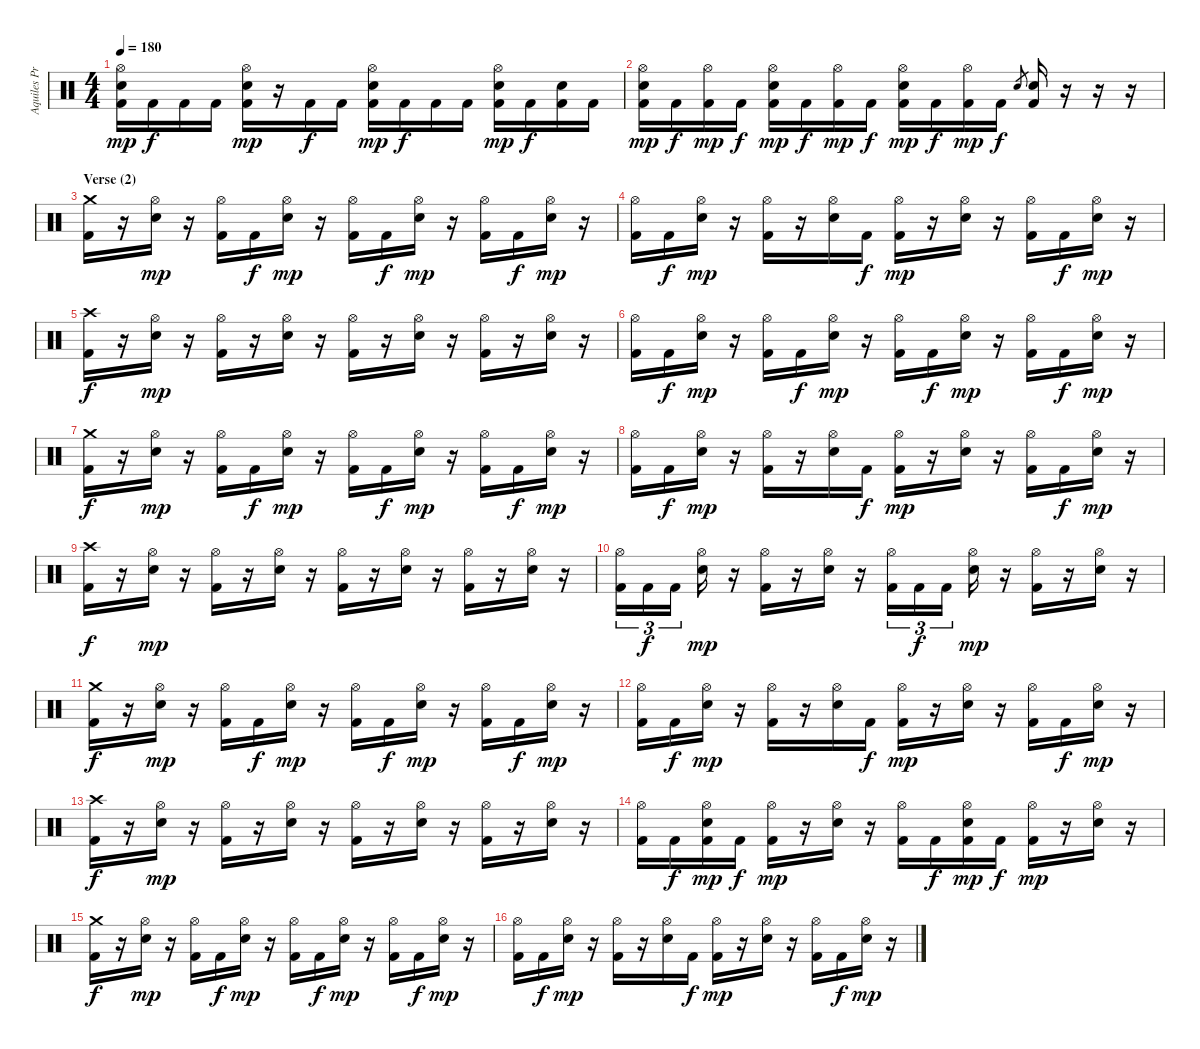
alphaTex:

\track ("Aquiles Priester" "Aquiles Pr") {instrument percussion}
\staff {score}
\articulation defaults
\ts (4 4)
\tempo 180
\clef neutral
\ks c
("Hi-Hat (open)" "Snare (hit) 2" "Kick (hit) 2").16{dy mp} "Kick (hit) 2".16{dy f} "Kick (hit) 2".16 "Kick (hit) 2".16 ("Hi-Hat (open)" "Snare (hit) 2" "Kick (hit) 2").16{dy mp} r.16 "Kick (hit) 2".16{dy f} "Kick (hit) 2".16 ("Hi-Hat (open)" "Snare (hit) 2" "Kick (hit) 2").16{dy mp} "Kick (hit) 2".16{dy f} "Kick (hit) 2".16 "Kick (hit) 2".16 ("Hi-Hat (open)" "Snare (hit) 2" "Kick (hit) 2").16{dy mp} "Kick (hit) 2".16{dy f} ("Snare (hit) 2" "Kick (hit) 2").16 "Kick (hit) 2".16 |
("Hi-Hat (open)" "Snare (hit) 2" "Kick (hit) 2").16{dy mp} "Kick (hit) 2".16{dy f} ("Hi-Hat (open)" "Kick (hit) 2").16{dy mp} "Kick (hit) 2".16{dy f} ("Hi-Hat (open)" "Snare (hit) 2" "Kick (hit) 2").16{dy mp} "Kick (hit) 2".16{dy f} ("Hi-Hat (open)" "Kick (hit) 2").16{dy mp} "Kick (hit) 2".16{dy f} ("Hi-Hat (open)" "Snare (hit) 2" "Kick (hit) 2").16{dy mp} "Kick (hit) 2".16{dy f} ("Hi-Hat (open)" "Kick (hit) 2").16{dy mp} "Kick (hit) 2".16{dy f} "Snare (hit) 2".8{gr} ("Snare (hit) 2" "Kick (hit) 2").16 r.16 r.16 r.16 |
\section ("" "Verse (2)")
("Crash medium (hit)" "Kick (hit) 2").16 r.16 ("Hi-Hat (open)" "Snare (hit) 2").16{dy mp} r.16 ("Hi-Hat (open)" "Kick (hit) 2").16 "Kick (hit) 2".16{dy f} ("Hi-Hat (open)" "Snare (hit) 2").16{dy mp} r.16 ("Hi-Hat (open)" "Kick (hit) 2").16 "Kick (hit) 2".16{dy f} ("Hi-Hat (open)" "Snare (hit) 2").16{dy mp} r.16 ("Hi-Hat (open)" "Kick (hit) 2").16 "Kick (hit) 2".16{dy f} ("Hi-Hat (open)" "Snare (hit) 2").16{dy mp} r.16 |
("Hi-Hat (open)" "Kick (hit) 2").16 "Kick (hit) 2".16{dy f} ("Hi-Hat (open)" "Snare (hit) 2").16{dy mp} r.16 ("Hi-Hat (open)" "Kick (hit) 2").16 r.16 ("Hi-Hat (open)" "Snare (hit) 2").16 "Kick (hit) 2".16{dy f} ("Hi-Hat (open)" "Kick (hit) 2").16{dy mp} r.16 ("Hi-Hat (open)" "Snare (hit) 2").16 r.16 ("Hi-Hat (open)" "Kick (hit) 2").16 "Kick (hit) 2".16{dy f} ("Hi-Hat (open)" "Snare (hit) 2").16{dy mp} r.16 |
("Crash high (hit)" "Kick (hit) 2").16{dy f} r.16 ("Hi-Hat (open)" "Snare (hit) 2").16{dy mp} r.16 ("Hi-Hat (open)" "Kick (hit) 2").16 r.16 ("Hi-Hat (open)" "Snare (hit) 2").16 r.16 ("Hi-Hat (open)" "Kick (hit) 2").16 r.16 ("Hi-Hat (open)" "Snare (hit) 2").16 r.16 ("Hi-Hat (open)" "Kick (hit) 2").16 r.16 ("Hi-Hat (open)" "Snare (hit) 2").16 r.16 |
("Hi-Hat (open)" "Kick (hit) 2").16 "Kick (hit) 2".16{dy f} ("Hi-Hat (open)" "Snare (hit) 2").16{dy mp} r.16 ("Hi-Hat (open)" "Kick (hit) 2").16 "Kick (hit) 2".16{dy f} ("Hi-Hat (open)" "Snare (hit) 2").16{dy mp} r.16 ("Hi-Hat (open)" "Kick (hit) 2").16 "Kick (hit) 2".16{dy f} ("Hi-Hat (open)" "Snare (hit) 2").16{dy mp} r.16 ("Hi-Hat (open)" "Kick (hit) 2").16 "Kick (hit) 2".16{dy f} ("Hi-Hat (open)" "Snare (hit) 2").16{dy mp} r.16 |
("Crash medium (hit)" "Kick (hit) 2").16{dy f} r.16 ("Hi-Hat (open)" "Snare (hit) 2").16{dy mp} r.16 ("Hi-Hat (open)" "Kick (hit) 2").16 "Kick (hit) 2".16{dy f} ("Hi-Hat (open)" "Snare (hit) 2").16{dy mp} r.16 ("Hi-Hat (open)" "Kick (hit) 2").16 "Kick (hit) 2".16{dy f} ("Hi-Hat (open)" "Snare (hit) 2").16{dy mp} r.16 ("Hi-Hat (open)" "Kick (hit) 2").16 "Kick (hit) 2".16{dy f} ("Hi-Hat (open)" "Snare (hit) 2").16{dy mp} r.16 |
("Hi-Hat (open)" "Kick (hit) 2").16 "Kick (hit) 2".16{dy f} ("Hi-Hat (open)" "Snare (hit) 2").16{dy mp} r.16 ("Hi-Hat (open)" "Kick (hit) 2").16 r.16 ("Hi-Hat (open)" "Snare (hit) 2").16 "Kick (hit) 2".16{dy f} ("Hi-Hat (open)" "Kick (hit) 2").16{dy mp} r.16 ("Hi-Hat (open)" "Snare (hit) 2").16 r.16 ("Hi-Hat (open)" "Kick (hit) 2").16 "Kick (hit) 2".16{dy f} ("Hi-Hat (open)" "Snare (hit) 2").16{dy mp} r.16 |
("Crash high (hit)" "Kick (hit) 2").16{dy f} r.16 ("Hi-Hat (open)" "Snare (hit) 2").16{dy mp} r.16 ("Hi-Hat (open)" "Kick (hit) 2").16 r.16 ("Hi-Hat (open)" "Snare (hit) 2").16 r.16 ("Hi-Hat (open)" "Kick (hit) 2").16 r.16 ("Hi-Hat (open)" "Snare (hit) 2").16 r.16 ("Hi-Hat (open)" "Kick (hit) 2").16 r.16 ("Hi-Hat (open)" "Snare (hit) 2").16 r.16 |
("Hi-Hat (open)" "Kick (hit) 2").16{tu (3 2)} "Kick (hit) 2".16{tu (3 2) dy f} "Kick (hit) 2".16{tu (3 2)} ("Hi-Hat (open)" "Snare (hit) 2").16{dy mp} r.16 ("Hi-Hat (open)" "Kick (hit) 2").16 r.16 ("Hi-Hat (open)" "Snare (hit) 2").16 r.16 ("Hi-Hat (open)" "Kick (hit) 2").16{tu (3 2)} "Kick (hit) 2".16{tu (3 2) dy f} "Kick (hit) 2".16{tu (3 2)} ("Hi-Hat (open)" "Snare (hit) 2").16{dy mp} r.16 ("Hi-Hat (open)" "Kick (hit) 2").16 r.16 ("Hi-Hat (open)" "Snare (hit) 2").16 r.16 |
("Crash medium (hit)" "Kick (hit) 2").16{dy f} r.16 ("Hi-Hat (open)" "Snare (hit) 2").16{dy mp} r.16 ("Hi-Hat (open)" "Kick (hit) 2").16 "Kick (hit) 2".16{dy f} ("Hi-Hat (open)" "Snare (hit) 2").16{dy mp} r.16 ("Hi-Hat (open)" "Kick (hit) 2").16 "Kick (hit) 2".16{dy f} ("Hi-Hat (open)" "Snare (hit) 2").16{dy mp} r.16 ("Hi-Hat (open)" "Kick (hit) 2").16 "Kick (hit) 2".16{dy f} ("Hi-Hat (open)" "Snare (hit) 2").16{dy mp} r.16 |
("Hi-Hat (open)" "Kick (hit) 2").16 "Kick (hit) 2".16{dy f} ("Hi-Hat (open)" "Snare (hit) 2").16{dy mp} r.16 ("Hi-Hat (open)" "Kick (hit) 2").16 r.16 ("Hi-Hat (open)" "Snare (hit) 2").16 "Kick (hit) 2".16{dy f} ("Hi-Hat (open)" "Kick (hit) 2").16{dy mp} r.16 ("Hi-Hat (open)" "Snare (hit) 2").16 r.16 ("Hi-Hat (open)" "Kick (hit) 2").16 "Kick (hit) 2".16{dy f} ("Hi-Hat (open)" "Snare (hit) 2").16{dy mp} r.16 |
("Crash high (hit)" "Kick (hit) 2").16{dy f} r.16 ("Hi-Hat (open)" "Snare (hit) 2").16{dy mp} r.16 ("Hi-Hat (open)" "Kick (hit) 2").16 r.16 ("Hi-Hat (open)" "Snare (hit) 2").16 r.16 ("Hi-Hat (open)" "Kick (hit) 2").16 r.16 ("Hi-Hat (open)" "Snare (hit) 2").16 r.16 ("Hi-Hat (open)" "Kick (hit) 2").16 r.16 ("Hi-Hat (open)" "Snare (hit) 2").16 r.16 |
("Hi-Hat (open)" "Kick (hit) 2").16 "Kick (hit) 2".16{dy f} ("Hi-Hat (open)" "Snare (hit) 2" "Kick (hit) 2").16{dy mp} "Kick (hit) 2".16{dy f} ("Hi-Hat (open)" "Kick (hit) 2").16{dy mp} r.16 ("Hi-Hat (open)" "Snare (hit) 2").16 r.16 ("Hi-Hat (open)" "Kick (hit) 2").16 "Kick (hit) 2".16{dy f} ("Hi-Hat (open)" "Snare (hit) 2" "Kick (hit) 2").16{dy mp} "Kick (hit) 2".16{dy f} ("Hi-Hat (open)" "Kick (hit) 2").16{dy mp} r.16 ("Hi-Hat (open)" "Snare (hit) 2").16 r.16 |
("Crash medium (hit)" "Kick (hit) 2").16{dy f} r.16 ("Hi-Hat (open)" "Snare (hit) 2").16{dy mp} r.16 ("Hi-Hat (open)" "Kick (hit) 2").16 "Kick (hit) 2".16{dy f} ("Hi-Hat (open)" "Snare (hit) 2").16{dy mp} r.16 ("Hi-Hat (open)" "Kick (hit) 2").16 "Kick (hit) 2".16{dy f} ("Hi-Hat (open)" "Snare (hit) 2").16{dy mp} r.16 ("Hi-Hat (open)" "Kick (hit) 2").16 "Kick (hit) 2".16{dy f} ("Hi-Hat (open)" "Snare (hit) 2").16{dy mp} r.16 |
("Hi-Hat (open)" "Kick (hit) 2").16 "Kick (hit) 2".16{dy f} ("Hi-Hat (open)" "Snare (hit) 2").16{dy mp} r.16 ("Hi-Hat (open)" "Kick (hit) 2").16 r.16 ("Hi-Hat (open)" "Snare (hit) 2").16 "Kick (hit) 2".16{dy f} ("Hi-Hat (open)" "Kick (hit) 2").16{dy mp} r.16 ("Hi-Hat (open)" "Snare (hit) 2").16 r.16 ("Hi-Hat (open)" "Kick (hit) 2").16 "Kick (hit) 2".16{dy f} ("Hi-Hat (open)" "Snare (hit) 2").16{dy mp} r.16
